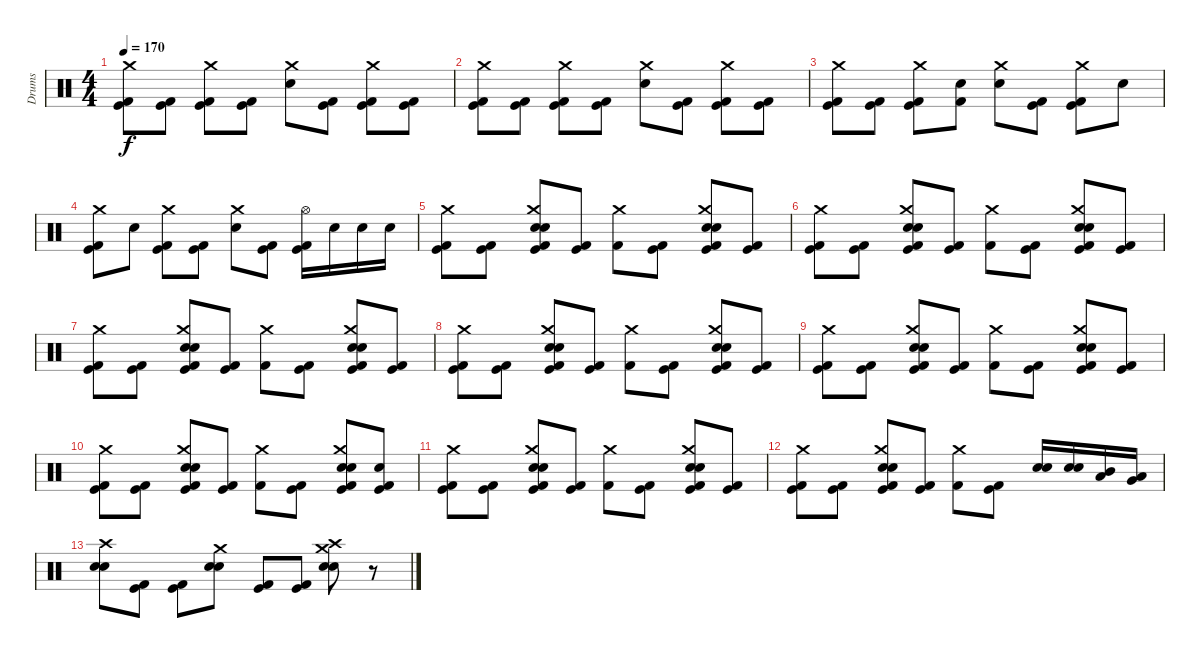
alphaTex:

\track ("Drums" "Drums") {instrument percussion}
\staff {score}
\articulation defaults
\ts (4 4)
\tempo 170
\clef neutral
\ks c
("Kick (hit) 2" "Kick (hit)" "Crash medium (hit)").8{dy f} ("Kick (hit) 2" "Kick (hit)").8 ("Kick (hit) 2" "Kick (hit)" "Crash medium (hit)").8 ("Kick (hit) 2" "Kick (hit)").8 ("Snare (hit) 2" "Crash medium (hit)").8 ("Kick (hit) 2" "Kick (hit)").8 ("Kick (hit) 2" "Kick (hit)" "Crash medium (hit)").8 ("Kick (hit) 2" "Kick (hit)").8 |
("Kick (hit) 2" "Kick (hit)" "Crash medium (hit)").8 ("Kick (hit) 2" "Kick (hit)").8 ("Kick (hit) 2" "Kick (hit)" "Crash medium (hit)").8 ("Kick (hit) 2" "Kick (hit)").8 ("Snare (hit) 2" "Crash medium (hit)").8 ("Kick (hit) 2" "Kick (hit)").8 ("Kick (hit) 2" "Kick (hit)" "Crash medium (hit)").8 ("Kick (hit) 2" "Kick (hit)").8 |
("Kick (hit) 2" "Kick (hit)" "Crash medium (hit)").8 ("Kick (hit) 2" "Kick (hit)").8 ("Kick (hit) 2" "Kick (hit)" "Crash medium (hit)").8 ("Kick (hit) 2" "Snare (hit) 2").8 ("Snare (hit) 2" "Crash medium (hit)").8 ("Kick (hit) 2" "Kick (hit)").8 ("Kick (hit) 2" "Kick (hit)" "Crash medium (hit)").8 "Snare (hit) 2".8 |
("Kick (hit) 2" "Kick (hit)" "Crash medium (hit)").8 "Snare (hit) 2".8 ("Kick (hit) 2" "Kick (hit)" "Crash medium (hit)").8 ("Kick (hit) 2" "Kick (hit)").8 ("Snare (hit) 2" "Crash medium (hit)").8 ("Kick (hit) 2" "Kick (hit)").8 ("Kick (hit) 2" "Kick (hit)" "Hi-Hat (open)").16 "Snare (hit) 2".16 "Snare (hit) 2".16 "Snare (hit) 2".16 |
("Kick (hit) 2" "Kick (hit)" "Crash medium (hit)").8 ("Kick (hit) 2" "Kick (hit)").8 ("Snare (hit) 2" "Electric Snare (hit)" "Kick (hit) 2" "Kick (hit)" "Crash medium (hit)").8 ("Kick (hit) 2" "Kick (hit)").8 ("Kick (hit) 2" "Crash medium (hit)").8 ("Kick (hit) 2" "Kick (hit)").8 ("Snare (hit) 2" "Electric Snare (hit)" "Kick (hit) 2" "Kick (hit)" "Crash medium (hit)").8 ("Kick (hit) 2" "Kick (hit)").8 |
("Kick (hit) 2" "Kick (hit)" "Crash medium (hit)").8 ("Kick (hit) 2" "Kick (hit)").8 ("Snare (hit) 2" "Electric Snare (hit)" "Kick (hit) 2" "Kick (hit)" "Crash medium (hit)").8 ("Kick (hit) 2" "Kick (hit)").8 ("Kick (hit) 2" "Crash medium (hit)").8 ("Kick (hit) 2" "Kick (hit)").8 ("Snare (hit) 2" "Electric Snare (hit)" "Kick (hit) 2" "Kick (hit)" "Crash medium (hit)").8 ("Kick (hit) 2" "Kick (hit)").8 |
("Kick (hit) 2" "Kick (hit)" "Crash medium (hit)").8 ("Kick (hit) 2" "Kick (hit)").8 ("Snare (hit) 2" "Electric Snare (hit)" "Kick (hit) 2" "Kick (hit)" "Crash medium (hit)").8 ("Kick (hit) 2" "Kick (hit)").8 ("Kick (hit) 2" "Crash medium (hit)").8 ("Kick (hit) 2" "Kick (hit)").8 ("Snare (hit) 2" "Electric Snare (hit)" "Kick (hit) 2" "Kick (hit)" "Crash medium (hit)").8 ("Kick (hit) 2" "Kick (hit)").8 |
("Kick (hit) 2" "Kick (hit)" "Crash medium (hit)").8 ("Kick (hit) 2" "Kick (hit)").8 ("Snare (hit) 2" "Electric Snare (hit)" "Kick (hit) 2" "Kick (hit)" "Crash medium (hit)").8 ("Kick (hit) 2" "Kick (hit)").8 ("Kick (hit) 2" "Crash medium (hit)").8 ("Kick (hit) 2" "Kick (hit)").8 ("Snare (hit) 2" "Electric Snare (hit)" "Kick (hit) 2" "Kick (hit)" "Crash medium (hit)").8 ("Kick (hit) 2" "Kick (hit)").8 |
("Kick (hit) 2" "Kick (hit)" "Crash medium (hit)").8 ("Kick (hit) 2" "Kick (hit)").8 ("Snare (hit) 2" "Electric Snare (hit)" "Kick (hit) 2" "Kick (hit)" "Crash medium (hit)").8 ("Kick (hit) 2" "Kick (hit)").8 ("Kick (hit) 2" "Crash medium (hit)").8 ("Kick (hit) 2" "Kick (hit)").8 ("Snare (hit) 2" "Electric Snare (hit)" "Kick (hit) 2" "Kick (hit)" "Crash medium (hit)").8 ("Kick (hit) 2" "Kick (hit)").8 |
("Kick (hit) 2" "Kick (hit)" "Crash medium (hit)").8 ("Kick (hit) 2" "Kick (hit)").8 ("Snare (hit) 2" "Electric Snare (hit)" "Kick (hit) 2" "Kick (hit)" "Crash medium (hit)").8 ("Kick (hit) 2" "Kick (hit)").8 ("Kick (hit) 2" "Crash medium (hit)").8 ("Kick (hit) 2" "Kick (hit)").8 ("Snare (hit) 2" "Electric Snare (hit)" "Kick (hit) 2" "Kick (hit)" "Crash medium (hit)").8 ("Electric Snare (hit)" "Kick (hit) 2" "Kick (hit)").8 |
("Kick (hit) 2" "Kick (hit)" "Crash medium (hit)").8 ("Kick (hit) 2" "Kick (hit)").8 ("Snare (hit) 2" "Electric Snare (hit)" "Kick (hit) 2" "Kick (hit)" "Crash medium (hit)").8 ("Kick (hit) 2" "Kick (hit)").8 ("Kick (hit) 2" "Crash medium (hit)").8 ("Kick (hit) 2" "Kick (hit)").8 ("Snare (hit) 2" "Electric Snare (hit)" "Kick (hit) 2" "Kick (hit)" "Crash medium (hit)").8 ("Kick (hit) 2" "Kick (hit)").8 |
("Kick (hit) 2" "Kick (hit)" "Crash medium (hit)").8 ("Kick (hit) 2" "Kick (hit)").8 ("Snare (hit) 2" "Electric Snare (hit)" "Kick (hit) 2" "Kick (hit)" "Crash medium (hit)").8 ("Kick (hit) 2" "Kick (hit)").8 ("Kick (hit) 2" "Crash medium (hit)").8 ("Kick (hit) 2" "Kick (hit)").8 ("Electric Snare (hit)" "Snare (hit) 2").16 ("Electric Snare (hit)" "Snare (hit) 2").16 ("Mid Tom (hit)" "Low Tom (hit)").16 ("Low Tom (hit)" "Very Low Tom (hit)").16 |
("Crash high (hit)" "Electric Snare (hit)" "Snare (hit) 2").8 ("Kick (hit)" "Kick (hit) 2").8 ("Kick (hit)" "Kick (hit) 2").8 ("Crash medium (hit)" "Electric Snare (hit)" "Snare (hit) 2").8 ("Kick (hit)" "Kick (hit) 2").8 ("Kick (hit)" "Kick (hit) 2").8 ("Crash high (hit)" "Crash medium (hit)" "Electric Snare (hit)" "Snare (hit) 2").8 r.8
